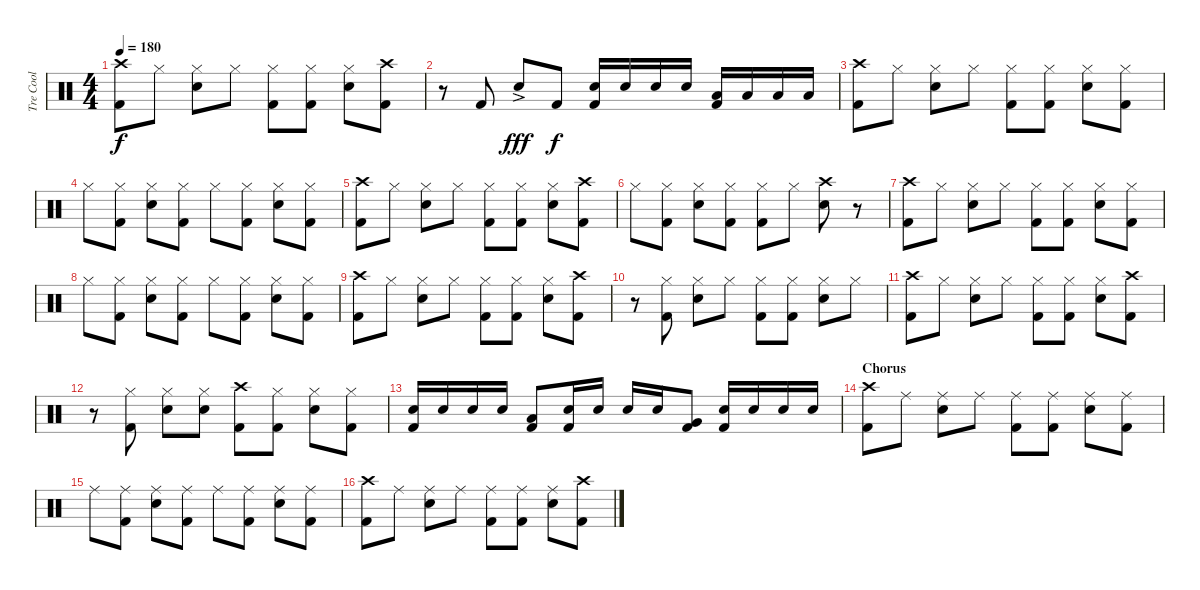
\track ("Tre Cool" "Tre Cool") {instrument percussion}
\staff {score}
\articulation defaults
\ts (4 4)
\tempo 180
\clef neutral
\ks c
("Crash high (hit)" "Kick (hit) 2").8{dy f} "Hi-Hat (closed)".8 ("Hi-Hat (closed)" "Electric Snare (hit)").8 "Hi-Hat (closed)".8 ("Hi-Hat (closed)" "Kick (hit) 2").8 ("Hi-Hat (closed)" "Kick (hit) 2").8 ("Hi-Hat (closed)" "Electric Snare (hit)").8 ("Crash high (hit)" "Kick (hit) 2").8 |
r.8 "Kick (hit) 2".8 "Electric Snare (hit)"{ac}.8{dy fff} "Kick (hit) 2".8{dy f} ("Electric Snare (hit)" "Kick (hit) 2").16 "Electric Snare (hit)".16 "Electric Snare (hit)".16 "Electric Snare (hit)".16 ("Low Tom (hit)" "Kick (hit) 2").16 "Low Tom (hit)".16 "Low Tom (hit)".16 "Low Tom (hit)".16 |
("Crash high (hit)" "Kick (hit) 2").8 "Hi-Hat (closed)".8 ("Hi-Hat (closed)" "Electric Snare (hit)").8 "Hi-Hat (closed)".8 ("Hi-Hat (closed)" "Kick (hit) 2").8 ("Hi-Hat (closed)" "Kick (hit) 2").8 ("Hi-Hat (closed)" "Electric Snare (hit)").8 ("Hi-Hat (closed)" "Kick (hit) 2").8 |
"Hi-Hat (closed)".8 ("Hi-Hat (closed)" "Kick (hit) 2").8 ("Hi-Hat (closed)" "Electric Snare (hit)").8 ("Hi-Hat (closed)" "Kick (hit) 2").8 "Hi-Hat (closed)".8 ("Hi-Hat (closed)" "Kick (hit) 2").8 ("Hi-Hat (closed)" "Electric Snare (hit)").8 ("Hi-Hat (closed)" "Kick (hit) 2").8 |
("Crash high (hit)" "Kick (hit) 2").8 "Hi-Hat (closed)".8 ("Hi-Hat (closed)" "Electric Snare (hit)").8 "Hi-Hat (closed)".8 ("Hi-Hat (closed)" "Kick (hit) 2").8 ("Hi-Hat (closed)" "Kick (hit) 2").8 ("Hi-Hat (closed)" "Electric Snare (hit)").8 ("Crash high (hit)" "Kick (hit) 2").8 |
"Hi-Hat (closed)".8 ("Hi-Hat (closed)" "Kick (hit) 2").8 ("Hi-Hat (closed)" "Electric Snare (hit)").8 ("Hi-Hat (closed)" "Kick (hit) 2").8 ("Hi-Hat (closed)" "Kick (hit) 2").8 "Hi-Hat (closed)".8 ("Crash high (hit)" "Electric Snare (hit)").8 r.8 |
("Crash high (hit)" "Kick (hit) 2").8 "Hi-Hat (closed)".8 ("Hi-Hat (closed)" "Electric Snare (hit)").8 "Hi-Hat (closed)".8 ("Hi-Hat (closed)" "Kick (hit) 2").8 ("Hi-Hat (closed)" "Kick (hit) 2").8 ("Hi-Hat (closed)" "Electric Snare (hit)").8 ("Hi-Hat (closed)" "Kick (hit) 2").8 |
"Hi-Hat (closed)".8 ("Hi-Hat (closed)" "Kick (hit) 2").8 ("Hi-Hat (closed)" "Electric Snare (hit)").8 ("Hi-Hat (closed)" "Kick (hit) 2").8 "Hi-Hat (closed)".8 ("Hi-Hat (closed)" "Kick (hit) 2").8 ("Hi-Hat (closed)" "Electric Snare (hit)").8 ("Hi-Hat (closed)" "Kick (hit) 2").8 |
("Crash high (hit)" "Kick (hit) 2").8 "Hi-Hat (closed)".8 ("Hi-Hat (closed)" "Electric Snare (hit)").8 "Hi-Hat (closed)".8 ("Hi-Hat (closed)" "Kick (hit) 2").8 ("Hi-Hat (closed)" "Kick (hit) 2").8 ("Hi-Hat (closed)" "Electric Snare (hit)").8 ("Crash high (hit)" "Kick (hit) 2").8 |
r.8 ("Hi-Hat (closed)" "Kick (hit) 2").8 ("Hi-Hat (closed)" "Electric Snare (hit)").8 "Hi-Hat (closed)".8 ("Hi-Hat (closed)" "Kick (hit) 2").8 ("Hi-Hat (closed)" "Kick (hit) 2").8 ("Hi-Hat (closed)" "Electric Snare (hit)").8 "Hi-Hat (closed)".8 |
("Crash high (hit)" "Kick (hit) 2").8 "Hi-Hat (closed)".8 ("Hi-Hat (closed)" "Electric Snare (hit)").8 "Hi-Hat (closed)".8 ("Hi-Hat (closed)" "Kick (hit) 2").8 ("Hi-Hat (closed)" "Kick (hit) 2").8 ("Hi-Hat (closed)" "Electric Snare (hit)").8 ("Crash high (hit)" "Kick (hit) 2").8 |
r.8 ("Hi-Hat (closed)" "Kick (hit) 2").8 ("Hi-Hat (closed)" "Electric Snare (hit)").8 ("Hi-Hat (closed)" "Electric Snare (hit)").8 ("Crash high (hit)" "Kick (hit) 2").8 ("Hi-Hat (closed)" "Kick (hit) 2").8 ("Hi-Hat (closed)" "Electric Snare (hit)").8 ("Hi-Hat (closed)" "Kick (hit) 2").8 |
("Electric Snare (hit)" "Kick (hit) 2").16 "Electric Snare (hit)".16 "Electric Snare (hit)".16 "Electric Snare (hit)".16 ("Low Tom (hit)" "Kick (hit) 2").8 ("Electric Snare (hit)" "Kick (hit) 2").16 "Electric Snare (hit)".16 "Electric Snare (hit)".16 "Electric Snare (hit)".16 ("Very Low Tom (hit)" "Kick (hit) 2").8 ("Electric Snare (hit)" "Kick (hit) 2").16 "Electric Snare (hit)".16 "Electric Snare (hit)".16 "Electric Snare (hit)".16 |
\section ("" "Chorus")
("Crash high (hit)" "Kick (hit) 2").8 "Ride (middle)".8 ("Ride (middle)" "Electric Snare (hit)").8 "Ride (middle)".8 ("Ride (middle)" "Kick (hit) 2").8 ("Ride (middle)" "Kick (hit) 2").8 ("Ride (middle)" "Electric Snare (hit)").8 ("Ride (middle)" "Kick (hit) 2").8 |
"Ride (middle)".8 ("Ride (middle)" "Kick (hit) 2").8 ("Ride (middle)" "Electric Snare (hit)").8 ("Ride (middle)" "Kick (hit) 2").8 "Ride (middle)".8 ("Ride (middle)" "Kick (hit) 2").8 ("Ride (middle)" "Electric Snare (hit)").8 ("Ride (middle)" "Kick (hit) 2").8 |
("Crash high (hit)" "Kick (hit) 2").8 "Ride (middle)".8 ("Ride (middle)" "Electric Snare (hit)").8 "Ride (middle)".8 ("Ride (middle)" "Kick (hit) 2").8 ("Ride (middle)" "Kick (hit) 2").8 ("Ride (middle)" "Electric Snare (hit)").8 ("Crash high (hit)" "Kick (hit) 2").8
